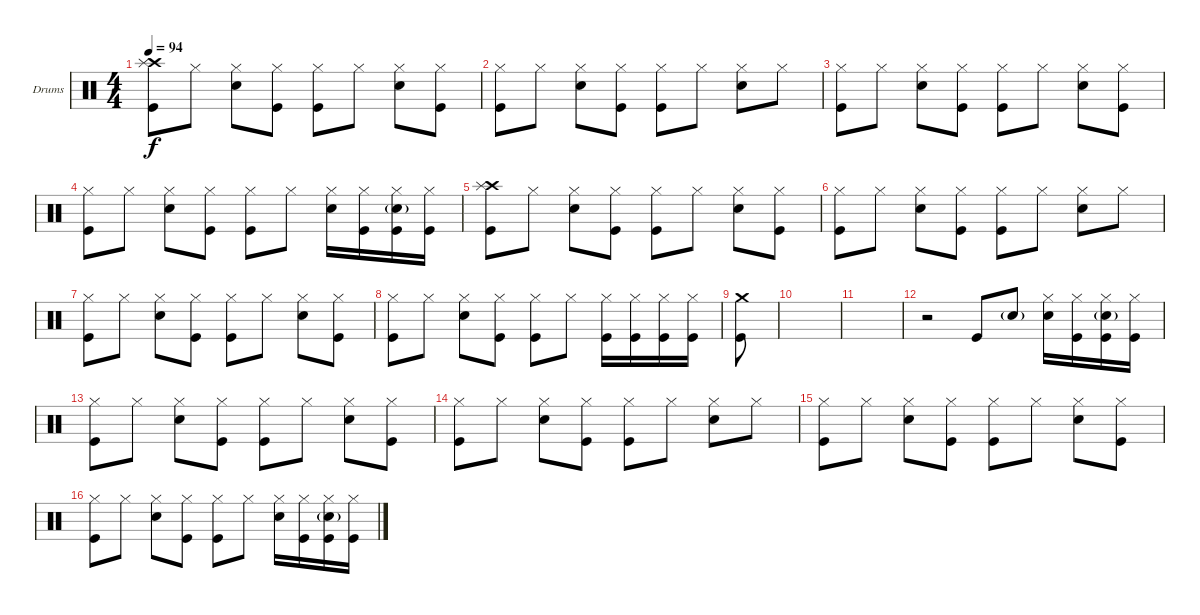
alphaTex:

\defaultSystemsLayout 4
\bracketExtendMode groupsimilarinstruments
\firstSystemTrackNameOrientation horizontal
\otherSystemsTrackNameOrientation horizontal
\track ("Drumkit" "Drums") {instrument percussion}
\staff {score}
\articulation defaults
\ts (4 4)
\tempo 94
\clef neutral
\ks c
("Kick (hit)" "Crash high (hit)" "Splash (hit)").8{dy f} "Hi-Hat (closed)".8 ("Hi-Hat (closed)" "Snare (hit) 2").8 ("Kick (hit)" "Hi-Hat (closed)").8 ("Kick (hit)" "Hi-Hat (closed)").8 "Hi-Hat (closed)".8 ("Snare (hit) 2" "Hi-Hat (closed)").8 ("Hi-Hat (closed)" "Kick (hit)").8 |
("Kick (hit)" "Hi-Hat (closed)").8 "Hi-Hat (closed)".8 ("Hi-Hat (closed)" "Snare (hit) 2").8 ("Hi-Hat (closed)" "Kick (hit)").8 ("Kick (hit)" "Hi-Hat (closed)").8 "Hi-Hat (closed)".8 ("Hi-Hat (closed)" "Snare (hit) 2").8 "Hi-Hat (closed)".8 |
("Kick (hit)" "Hi-Hat (closed)").8 "Hi-Hat (closed)".8 ("Hi-Hat (closed)" "Snare (hit) 2").8 ("Kick (hit)" "Hi-Hat (closed)").8 ("Kick (hit)" "Hi-Hat (closed)").8 "Hi-Hat (closed)".8 ("Snare (hit) 2" "Hi-Hat (closed)").8 ("Hi-Hat (closed)" "Kick (hit)").8 |
("Kick (hit)" "Hi-Hat (closed)").8 "Hi-Hat (closed)".8 ("Hi-Hat (closed)" "Snare (hit) 2").8 ("Hi-Hat (closed)" "Kick (hit)").8 ("Kick (hit)" "Hi-Hat (closed)").8 "Hi-Hat (closed)".8 ("Hi-Hat (closed)" "Snare (hit) 2").16 ("Hi-Hat (closed)" "Kick (hit)").16 ("Kick (hit)" "Hi-Hat (closed)" "Snare (hit) 2"{g}).16 ("Kick (hit)" "Hi-Hat (closed)").16 |
("Kick (hit)" "Crash high (hit)" "Splash (hit)").8 "Hi-Hat (closed)".8 ("Hi-Hat (closed)" "Snare (hit) 2").8 ("Kick (hit)" "Hi-Hat (closed)").8 ("Kick (hit)" "Hi-Hat (closed)").8 "Hi-Hat (closed)".8 ("Snare (hit) 2" "Hi-Hat (closed)").8 ("Hi-Hat (closed)" "Kick (hit)").8 |
("Kick (hit)" "Hi-Hat (closed)").8 "Hi-Hat (closed)".8 ("Hi-Hat (closed)" "Snare (hit) 2").8 ("Hi-Hat (closed)" "Kick (hit)").8 ("Kick (hit)" "Hi-Hat (closed)").8 "Hi-Hat (closed)".8 ("Hi-Hat (closed)" "Snare (hit) 2").8 "Hi-Hat (closed)".8 |
("Kick (hit)" "Hi-Hat (closed)").8 "Hi-Hat (closed)".8 ("Hi-Hat (closed)" "Snare (hit) 2").8 ("Kick (hit)" "Hi-Hat (closed)").8 ("Kick (hit)" "Hi-Hat (closed)").8 "Hi-Hat (closed)".8 ("Snare (hit) 2" "Hi-Hat (closed)").8 ("Hi-Hat (closed)" "Kick (hit)").8 |
("Kick (hit)" "Hi-Hat (closed)").8 "Hi-Hat (closed)".8 ("Hi-Hat (closed)" "Snare (hit) 2").8 ("Hi-Hat (closed)" "Kick (hit)").8 ("Kick (hit)" "Hi-Hat (closed)").8 "Hi-Hat (closed)".8 ("Hi-Hat (closed)" "Kick (hit)").16 ("Hi-Hat (closed)" "Kick (hit)").16 ("Kick (hit)" "Hi-Hat (closed)").16 ("Kick (hit)" "Hi-Hat (closed)").16 |
("Kick (hit)" "Crash medium (hit)").8 |
|
|
r.2 "Kick (hit)".8 "Snare (hit) 2"{g}.8 ("Snare (hit) 2" "Hi-Hat (closed)").16 ("Kick (hit)" "Hi-Hat (closed)").16 ("Kick (hit)" "Snare (hit) 2"{g} "Hi-Hat (closed)").16 ("Kick (hit)" "Hi-Hat (closed)").16 |
("Kick (hit)" "Hi-Hat (closed)").8 "Hi-Hat (closed)".8 ("Hi-Hat (closed)" "Snare (hit) 2").8 ("Kick (hit)" "Hi-Hat (closed)").8 ("Kick (hit)" "Hi-Hat (closed)").8 "Hi-Hat (closed)".8 ("Snare (hit) 2" "Hi-Hat (closed)").8 ("Hi-Hat (closed)" "Kick (hit)").8 |
("Kick (hit)" "Hi-Hat (closed)").8 "Hi-Hat (closed)".8 ("Hi-Hat (closed)" "Snare (hit) 2").8 ("Hi-Hat (closed)" "Kick (hit)").8 ("Kick (hit)" "Hi-Hat (closed)").8 "Hi-Hat (closed)".8 ("Hi-Hat (closed)" "Snare (hit) 2").8 "Hi-Hat (closed)".8 |
("Kick (hit)" "Hi-Hat (closed)").8 "Hi-Hat (closed)".8 ("Hi-Hat (closed)" "Snare (hit) 2").8 ("Kick (hit)" "Hi-Hat (closed)").8 ("Kick (hit)" "Hi-Hat (closed)").8 "Hi-Hat (closed)".8 ("Snare (hit) 2" "Hi-Hat (closed)").8 ("Hi-Hat (closed)" "Kick (hit)").8 |
("Kick (hit)" "Hi-Hat (closed)").8 "Hi-Hat (closed)".8 ("Hi-Hat (closed)" "Snare (hit) 2").8 ("Hi-Hat (closed)" "Kick (hit)").8 ("Kick (hit)" "Hi-Hat (closed)").8 "Hi-Hat (closed)".8 ("Hi-Hat (closed)" "Snare (hit) 2").16 ("Hi-Hat (closed)" "Kick (hit)").16 ("Kick (hit)" "Hi-Hat (closed)" "Snare (hit) 2"{g}).16 ("Kick (hit)" "Hi-Hat (closed)").16
